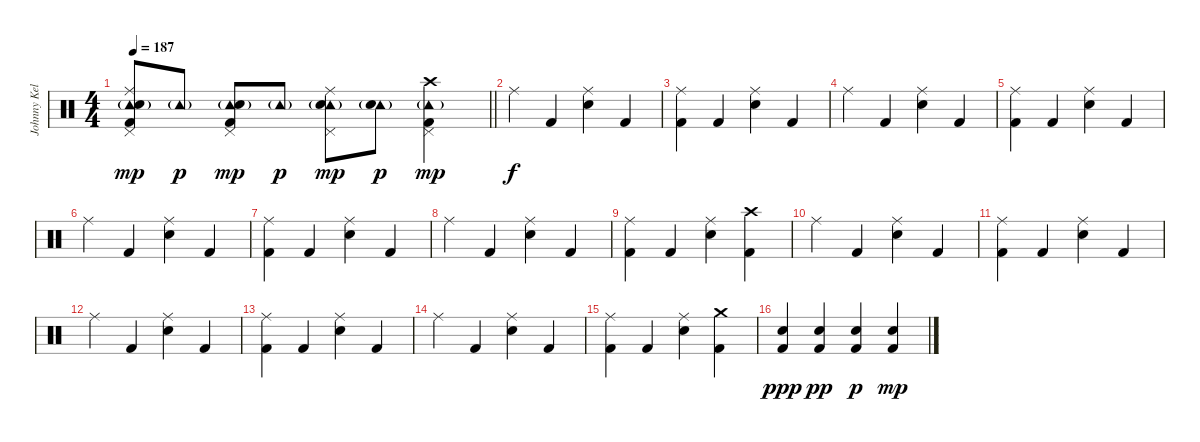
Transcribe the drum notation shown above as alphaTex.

\track ("Johnny Kelly" "Johnny Kel") {instrument percussion}
\staff {score}
\articulation defaults
\ts (4 4)
\tempo 187
\clef neutral
\barLineRight lightlight
\ks c
("Tambourine (hit)"{g} "Pedal Hi-Hat (hit)" "Ride (middle)" "Electric Snare (hit)" "Kick (hit) 2").8{dy mp} "Tambourine (hit)"{g}.8{dy p} ("Tambourine (hit)"{g} "Pedal Hi-Hat (hit)" "Electric Snare (hit)" "Kick (hit) 2").8{dy mp} "Tambourine (hit)"{g}.8{dy p} ("Tambourine (hit)"{g} "Pedal Hi-Hat (hit)" "Ride (middle)" "Electric Snare (hit)").8{dy mp} ("Tambourine (hit)"{g} "Electric Snare (hit)").8{dy p} ("Tambourine (hit)"{g} "Pedal Hi-Hat (hit)" "Crash high (hit)" "Kick (hit) 2").4{dy mp} |
\section ("" "")
"Ride (middle)".4{dy f} "Kick (hit) 2".4 ("Ride (middle)" "Electric Snare (hit)").4 "Kick (hit) 2".4 |
("Ride (middle)" "Kick (hit) 2").4 "Kick (hit) 2".4 ("Ride (middle)" "Electric Snare (hit)").4 "Kick (hit) 2".4 |
"Ride (middle)".4 "Kick (hit) 2".4 ("Ride (middle)" "Electric Snare (hit)").4 "Kick (hit) 2".4 |
("Ride (middle)" "Kick (hit) 2").4 "Kick (hit) 2".4 ("Ride (middle)" "Electric Snare (hit)").4 "Kick (hit) 2".4 |
"Ride (middle)".4 "Kick (hit) 2".4 ("Ride (middle)" "Electric Snare (hit)").4 "Kick (hit) 2".4 |
("Ride (middle)" "Kick (hit) 2").4 "Kick (hit) 2".4 ("Ride (middle)" "Electric Snare (hit)").4 "Kick (hit) 2".4 |
"Ride (middle)".4 "Kick (hit) 2".4 ("Ride (middle)" "Electric Snare (hit)").4 "Kick (hit) 2".4 |
("Ride (middle)" "Kick (hit) 2").4 "Kick (hit) 2".4 ("Ride (middle)" "Electric Snare (hit)").4 ("Crash high (hit)" "Kick (hit) 2").4 |
"Ride (middle)".4 "Kick (hit) 2".4 ("Ride (middle)" "Electric Snare (hit)").4 "Kick (hit) 2".4 |
("Ride (middle)" "Kick (hit) 2").4 "Kick (hit) 2".4 ("Ride (middle)" "Electric Snare (hit)").4 "Kick (hit) 2".4 |
"Ride (middle)".4 "Kick (hit) 2".4 ("Ride (middle)" "Electric Snare (hit)").4 "Kick (hit) 2".4 |
("Ride (middle)" "Kick (hit) 2").4 "Kick (hit) 2".4 ("Ride (middle)" "Electric Snare (hit)").4 "Kick (hit) 2".4 |
"Ride (middle)".4 "Kick (hit) 2".4 ("Ride (middle)" "Electric Snare (hit)").4 "Kick (hit) 2".4 |
("Ride (middle)" "Kick (hit) 2").4 "Kick (hit) 2".4 ("Ride (middle)" "Electric Snare (hit)").4 ("Crash medium (hit)" "Kick (hit) 2").4 |
("Electric Snare (hit)" "Kick (hit) 2").4{dy ppp} ("Electric Snare (hit)" "Kick (hit) 2").4{dy pp} ("Electric Snare (hit)" "Kick (hit) 2").4{dy p} ("Electric Snare (hit)" "Kick (hit) 2").4{dy mp}
